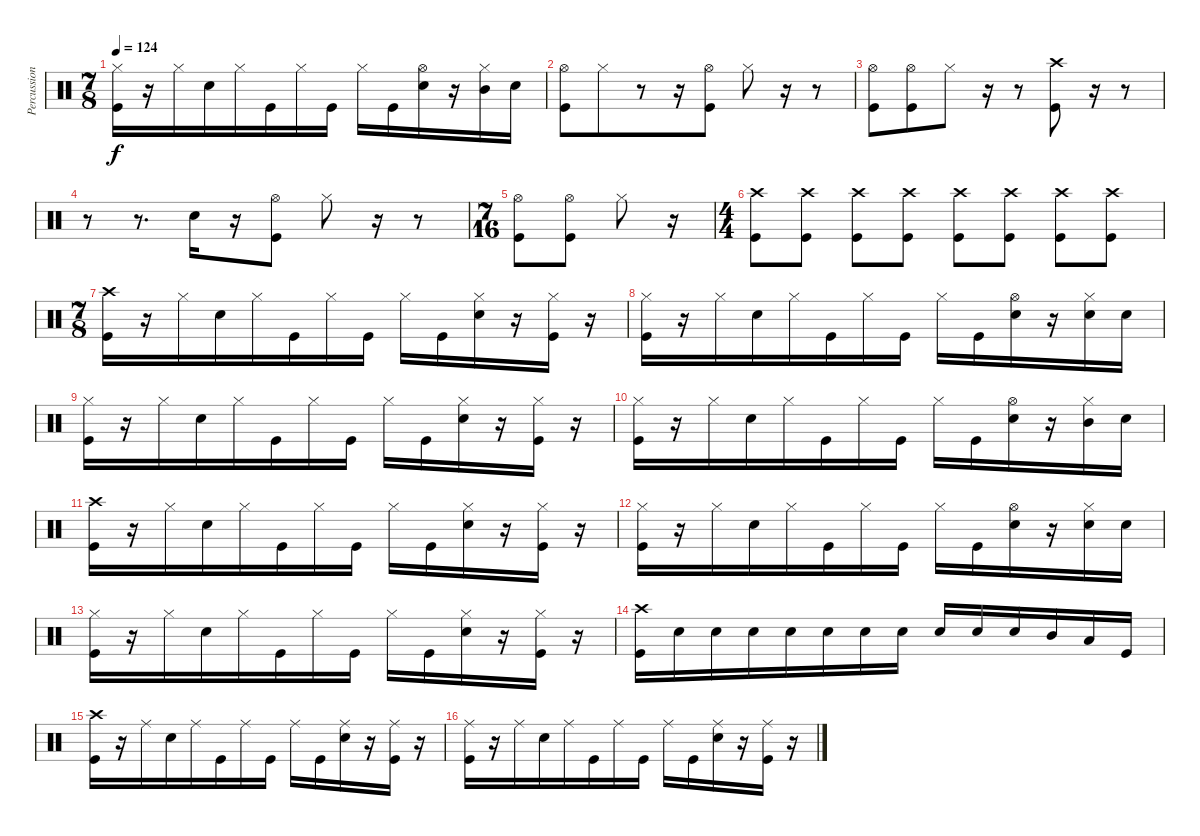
\track ("Percussion" "Percussion") {instrument percussion}
\staff {score}
\articulation defaults
\ts (7 8)
\tempo 124
\clef neutral
\ks c
("Kick (hit)" "Hi-Hat (closed)").16{dy f volume 13} r.16 "Hi-Hat (closed)".16 "Snare (hit) 2".16 "Hi-Hat (closed)".16 "Kick (hit)".16 "Hi-Hat (closed)".16 "Kick (hit)".16 "Hi-Hat (closed)".16 "Kick (hit)".16 ("Hi-Hat (open)" "Snare (hit) 2").16 r.16 ("Hi-Hat (closed)" "Mid Tom (hit)").16 "Snare (hit) 2".16 |
("Kick (hit)" "Hi-Hat (open)").8 "Hi-Hat (closed)".8 r.8 r.16 ("Kick (hit)" "Hi-Hat (open)").8 "Hi-Hat (closed)".8 r.16 r.8 |
("Kick (hit)" "Hi-Hat (open)").8 ("Kick (hit)" "Hi-Hat (open)").8 "Hi-Hat (closed)".8 r.16 r.8 ("Kick (hit)" "Crash high (hit)").8 r.16 r.8 |
r.8 r.8{d} "Snare (hit) 2".16 r.16 ("Kick (hit)" "Hi-Hat (open)").8 "Hi-Hat (closed)".8 r.16 r.8 |
\ts (7 16)
("Kick (hit)" "Hi-Hat (open)").8 ("Kick (hit)" "Hi-Hat (open)").8 "Hi-Hat (closed)".8 r.16 |
\ts (4 4)
("Kick (hit)" "Crash high (hit)").8 ("Crash high (hit)" "Kick (hit)").8 ("Crash high (hit)" "Kick (hit)").8 ("Crash high (hit)" "Kick (hit)").8 ("Crash high (hit)" "Kick (hit)").8 ("Crash high (hit)" "Kick (hit)").8 ("Crash high (hit)" "Kick (hit)").8 ("Crash high (hit)" "Kick (hit)").8 |
\ts (7 8)
("Kick (hit)" "Crash high (hit)").16{volume 13} r.16 "Hi-Hat (closed)".16 "Snare (hit) 2".16 "Hi-Hat (closed)".16 "Kick (hit)".16 "Hi-Hat (closed)".16 "Kick (hit)".16 "Hi-Hat (closed)".16 "Kick (hit)".16 ("Hi-Hat (closed)" "Snare (hit) 2").16 r.16 ("Hi-Hat (closed)" "Kick (hit)").16 r.16 |
("Kick (hit)" "Hi-Hat (closed)").16{volume 13} r.16 "Hi-Hat (closed)".16 "Snare (hit) 2".16 "Hi-Hat (closed)".16 "Kick (hit)".16 "Hi-Hat (closed)".16 "Kick (hit)".16 "Hi-Hat (closed)".16 "Kick (hit)".16 ("Hi-Hat (open)" "Snare (hit) 2").16 r.16 ("Hi-Hat (closed)" "Snare (hit) 2").16 "Snare (hit) 2".16 |
("Kick (hit)" "Hi-Hat (closed)").16{volume 13} r.16 "Hi-Hat (closed)".16 "Snare (hit) 2".16 "Hi-Hat (closed)".16 "Kick (hit)".16 "Hi-Hat (closed)".16 "Kick (hit)".16 "Hi-Hat (closed)".16 "Kick (hit)".16 ("Hi-Hat (closed)" "Snare (hit) 2").16 r.16 ("Hi-Hat (closed)" "Kick (hit)").16 r.16 |
("Kick (hit)" "Hi-Hat (closed)").16{volume 13} r.16 "Hi-Hat (closed)".16 "Snare (hit) 2".16 "Hi-Hat (closed)".16 "Kick (hit)".16 "Hi-Hat (closed)".16 "Kick (hit)".16 "Hi-Hat (closed)".16 "Kick (hit)".16 ("Hi-Hat (open)" "Snare (hit) 2").16 r.16 ("Hi-Hat (closed)" "Mid Tom (hit)").16 "Snare (hit) 2".16 |
("Kick (hit)" "Crash high (hit)").16{volume 13} r.16 "Hi-Hat (closed)".16 "Snare (hit) 2".16 "Hi-Hat (closed)".16 "Kick (hit)".16 "Hi-Hat (closed)".16 "Kick (hit)".16 "Hi-Hat (closed)".16 "Kick (hit)".16 ("Hi-Hat (closed)" "Snare (hit) 2").16 r.16 ("Hi-Hat (closed)" "Kick (hit)").16 r.16 |
("Kick (hit)" "Hi-Hat (closed)").16{volume 13} r.16 "Hi-Hat (closed)".16 "Snare (hit) 2".16 "Hi-Hat (closed)".16 "Kick (hit)".16 "Hi-Hat (closed)".16 "Kick (hit)".16 "Hi-Hat (closed)".16 "Kick (hit)".16 ("Hi-Hat (open)" "Snare (hit) 2").16 r.16 ("Hi-Hat (closed)" "Snare (hit) 2").16 "Snare (hit) 2".16 |
("Kick (hit)" "Hi-Hat (closed)").16{volume 13} r.16 "Hi-Hat (closed)".16 "Snare (hit) 2".16 "Hi-Hat (closed)".16 "Kick (hit)".16 "Hi-Hat (closed)".16 "Kick (hit)".16 "Hi-Hat (closed)".16 "Kick (hit)".16 ("Hi-Hat (closed)" "Snare (hit) 2").16 r.16 ("Hi-Hat (closed)" "Kick (hit)").16 r.16 |
("Kick (hit)" "Crash high (hit)").16 "Snare (hit) 2".16{volume 5} "Snare (hit) 2".16 "Snare (hit) 2".16{volume 13} "Snare (hit) 2".16{volume 5} "Snare (hit) 2".16{volume 13} "Snare (hit) 2".16{volume 5} "Snare (hit) 2".16{volume 13} "Snare (hit) 2".16{volume 5} "Snare (hit) 2".16{volume 10} "Snare (hit) 2".16{volume 13} "Mid Tom (hit)".16 "Low Floor Tom (hit)".16 "Kick (hit)".16 |
("Kick (hit)" "Crash high (hit)").16{volume 13} r.16 "Ride (middle)".16 "Snare (hit) 2".16 "Ride (middle)".16 "Kick (hit)".16 "Ride (middle)".16 "Kick (hit)".16 "Ride (middle)".16 "Kick (hit)".16 ("Ride (middle)" "Snare (hit) 2").16 r.16 ("Ride (middle)" "Kick (hit)").16 r.16 |
("Kick (hit)" "Ride (middle)").16{volume 13} r.16 "Ride (middle)".16 "Snare (hit) 2".16 "Ride (middle)".16 "Kick (hit)".16 "Ride (middle)".16 "Kick (hit)".16 "Ride (middle)".16 "Kick (hit)".16 ("Ride (middle)" "Snare (hit) 2").16 r.16 ("Ride (middle)" "Kick (hit)").16 r.16
